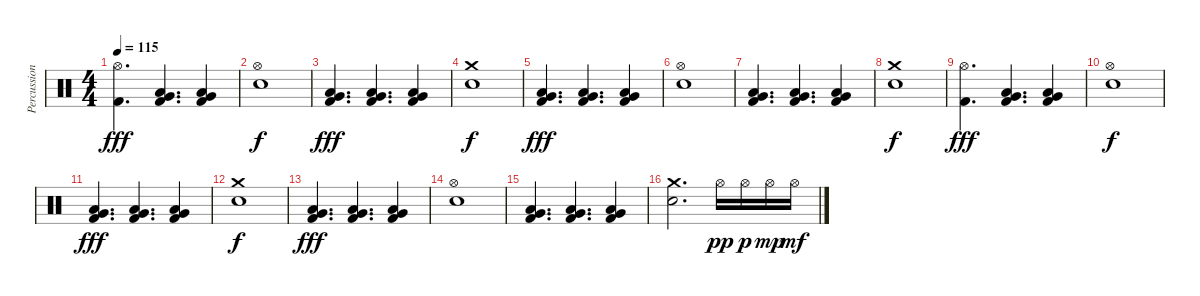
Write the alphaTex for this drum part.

\track ("Percussion" "Percussion") {instrument percussion}
\staff {score}
\articulation defaults
\ts (4 4)
\tempo 115
\clef neutral
\ks c
("Hi-Hat (open)" "Kick (hit) 2").4{d dy fff} ("Very Low Tom (hit)" "Low Floor Tom (hit)" "Kick (hit) 2").4{d} ("Very Low Tom (hit)" "Low Floor Tom (hit)" "Kick (hit) 2").4 |
("Hi-Hat (open)" "Snare (hit) 2").1{dy f} |
("Very Low Tom (hit)" "Low Floor Tom (hit)" "Kick (hit) 2").4{d dy fff} ("Very Low Tom (hit)" "Low Floor Tom (hit)" "Kick (hit) 2").4{d} ("Very Low Tom (hit)" "Low Floor Tom (hit)" "Kick (hit) 2").4 |
("Crash medium (hit)" "Snare (hit) 2").1{dy f} |
("Very Low Tom (hit)" "Low Floor Tom (hit)" "Kick (hit) 2").4{d dy fff} ("Very Low Tom (hit)" "Low Floor Tom (hit)" "Kick (hit) 2").4{d} ("Very Low Tom (hit)" "Low Floor Tom (hit)" "Kick (hit) 2").4 |
("Hi-Hat (open)" "Snare (hit) 2").1 |
("Very Low Tom (hit)" "Low Floor Tom (hit)" "Kick (hit) 2").4{d} ("Very Low Tom (hit)" "Low Floor Tom (hit)" "Kick (hit) 2").4{d} ("Very Low Tom (hit)" "Low Floor Tom (hit)" "Kick (hit) 2").4 |
("Crash medium (hit)" "Snare (hit) 2").1{dy f} |
("Hi-Hat (open)" "Kick (hit) 2").4{d dy fff} ("Very Low Tom (hit)" "Low Floor Tom (hit)" "Kick (hit) 2").4{d} ("Very Low Tom (hit)" "Low Floor Tom (hit)" "Kick (hit) 2").4 |
("Hi-Hat (open)" "Snare (hit) 2").1{dy f} |
("Very Low Tom (hit)" "Low Floor Tom (hit)" "Kick (hit) 2").4{d dy fff} ("Very Low Tom (hit)" "Low Floor Tom (hit)" "Kick (hit) 2").4{d} ("Very Low Tom (hit)" "Low Floor Tom (hit)" "Kick (hit) 2").4 |
("Crash medium (hit)" "Snare (hit) 2").1{dy f} |
("Very Low Tom (hit)" "Low Floor Tom (hit)" "Kick (hit) 2").4{d dy fff} ("Very Low Tom (hit)" "Low Floor Tom (hit)" "Kick (hit) 2").4{d} ("Very Low Tom (hit)" "Low Floor Tom (hit)" "Kick (hit) 2").4 |
("Hi-Hat (open)" "Snare (hit) 2").1 |
("Very Low Tom (hit)" "Low Floor Tom (hit)" "Kick (hit) 2").4{d} ("Very Low Tom (hit)" "Low Floor Tom (hit)" "Kick (hit) 2").4{d} ("Very Low Tom (hit)" "Low Floor Tom (hit)" "Kick (hit) 2").4 |
("Crash medium (hit)" "Snare (hit) 2").2{d} "Hi-Hat (open)".16{dy pp} "Hi-Hat (open)".16{dy p} "Hi-Hat (open)".16{dy mp} "Hi-Hat (open)".16{dy mf}
